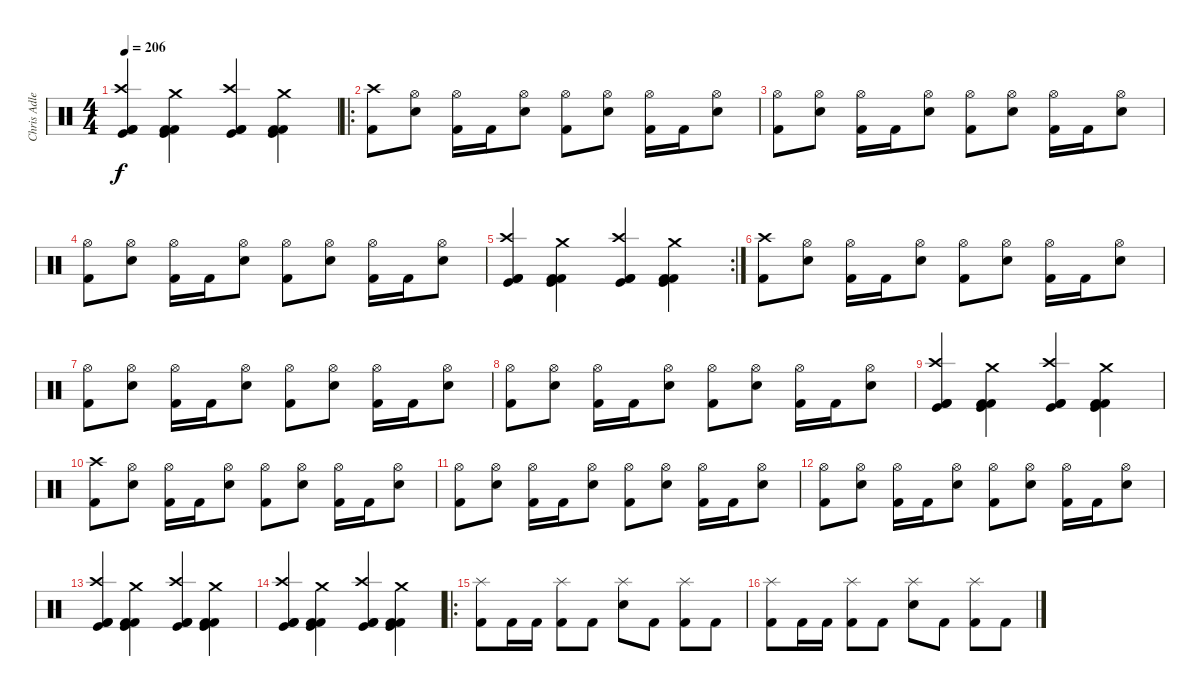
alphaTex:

\track ("Chris Adler" "Chris Adle") {instrument percussion}
\staff {score}
\articulation defaults
\ts (4 4)
\tempo 206
\clef neutral
\ks c
("Kick (hit) 2" "Crash high (hit)" "Kick (hit) 2" "Kick (hit)").4{dy f} ("Kick (hit) 2" "Crash medium (hit)" "Kick (hit) 2" "Kick (hit)").4 ("Kick (hit) 2" "Crash high (hit)" "Kick (hit) 2" "Kick (hit)").4 ("Kick (hit) 2" "Crash medium (hit)" "Kick (hit) 2" "Kick (hit)").4 |
\ro
("Crash high (hit)" "Kick (hit) 2").8 ("Hi-Hat (open)" "Electric Snare (hit)").8 ("Hi-Hat (open)" "Kick (hit) 2").16 "Kick (hit) 2".16 ("Hi-Hat (open)" "Electric Snare (hit)").8 ("Hi-Hat (open)" "Kick (hit) 2").8 ("Hi-Hat (open)" "Electric Snare (hit)").8 ("Hi-Hat (open)" "Kick (hit) 2").16 "Kick (hit) 2".16 ("Hi-Hat (open)" "Electric Snare (hit)").8 |
("Hi-Hat (open)" "Kick (hit) 2").8 ("Hi-Hat (open)" "Electric Snare (hit)").8 ("Hi-Hat (open)" "Kick (hit) 2").16 "Kick (hit) 2".16 ("Hi-Hat (open)" "Electric Snare (hit)").8 ("Hi-Hat (open)" "Kick (hit) 2").8 ("Hi-Hat (open)" "Electric Snare (hit)").8 ("Hi-Hat (open)" "Kick (hit) 2").16 "Kick (hit) 2".16 ("Hi-Hat (open)" "Electric Snare (hit)").8 |
("Hi-Hat (open)" "Kick (hit) 2").8 ("Hi-Hat (open)" "Electric Snare (hit)").8 ("Hi-Hat (open)" "Kick (hit) 2").16 "Kick (hit) 2".16 ("Hi-Hat (open)" "Electric Snare (hit)").8 ("Hi-Hat (open)" "Kick (hit) 2").8 ("Hi-Hat (open)" "Electric Snare (hit)").8 ("Hi-Hat (open)" "Kick (hit) 2").16 "Kick (hit) 2".16 ("Hi-Hat (open)" "Electric Snare (hit)").8 |
\rc 2
("Kick (hit) 2" "Crash high (hit)" "Kick (hit) 2" "Kick (hit)").4 ("Kick (hit) 2" "Crash medium (hit)" "Kick (hit) 2" "Kick (hit)").4 ("Kick (hit) 2" "Crash high (hit)" "Kick (hit) 2" "Kick (hit)").4 ("Kick (hit) 2" "Crash medium (hit)" "Kick (hit) 2" "Kick (hit)").4 |
("Crash high (hit)" "Kick (hit) 2").8 ("Hi-Hat (open)" "Electric Snare (hit)").8 ("Hi-Hat (open)" "Kick (hit) 2").16 "Kick (hit) 2".16 ("Hi-Hat (open)" "Electric Snare (hit)").8 ("Hi-Hat (open)" "Kick (hit) 2").8 ("Hi-Hat (open)" "Electric Snare (hit)").8 ("Hi-Hat (open)" "Kick (hit) 2").16 "Kick (hit) 2".16 ("Hi-Hat (open)" "Electric Snare (hit)").8 |
("Hi-Hat (open)" "Kick (hit) 2").8 ("Hi-Hat (open)" "Electric Snare (hit)").8 ("Hi-Hat (open)" "Kick (hit) 2").16 "Kick (hit) 2".16 ("Hi-Hat (open)" "Electric Snare (hit)").8 ("Hi-Hat (open)" "Kick (hit) 2").8 ("Hi-Hat (open)" "Electric Snare (hit)").8 ("Hi-Hat (open)" "Kick (hit) 2").16 "Kick (hit) 2".16 ("Hi-Hat (open)" "Electric Snare (hit)").8 |
("Hi-Hat (open)" "Kick (hit) 2").8 ("Hi-Hat (open)" "Electric Snare (hit)").8 ("Hi-Hat (open)" "Kick (hit) 2").16 "Kick (hit) 2".16 ("Hi-Hat (open)" "Electric Snare (hit)").8 ("Hi-Hat (open)" "Kick (hit) 2").8 ("Hi-Hat (open)" "Electric Snare (hit)").8 ("Hi-Hat (open)" "Kick (hit) 2").16 "Kick (hit) 2".16 ("Hi-Hat (open)" "Electric Snare (hit)").8 |
("Kick (hit) 2" "Crash high (hit)" "Kick (hit) 2" "Kick (hit)").4 ("Kick (hit) 2" "Crash medium (hit)" "Kick (hit) 2" "Kick (hit)").4 ("Kick (hit) 2" "Crash high (hit)" "Kick (hit) 2" "Kick (hit)").4 ("Kick (hit) 2" "Crash medium (hit)" "Kick (hit) 2" "Kick (hit)").4 |
("Crash high (hit)" "Kick (hit) 2").8 ("Hi-Hat (open)" "Electric Snare (hit)").8 ("Hi-Hat (open)" "Kick (hit) 2").16 "Kick (hit) 2".16 ("Hi-Hat (open)" "Electric Snare (hit)").8 ("Hi-Hat (open)" "Kick (hit) 2").8 ("Hi-Hat (open)" "Electric Snare (hit)").8 ("Hi-Hat (open)" "Kick (hit) 2").16 "Kick (hit) 2".16 ("Hi-Hat (open)" "Electric Snare (hit)").8 |
("Hi-Hat (open)" "Kick (hit) 2").8 ("Hi-Hat (open)" "Electric Snare (hit)").8 ("Hi-Hat (open)" "Kick (hit) 2").16 "Kick (hit) 2".16 ("Hi-Hat (open)" "Electric Snare (hit)").8 ("Hi-Hat (open)" "Kick (hit) 2").8 ("Hi-Hat (open)" "Electric Snare (hit)").8 ("Hi-Hat (open)" "Kick (hit) 2").16 "Kick (hit) 2".16 ("Hi-Hat (open)" "Electric Snare (hit)").8 |
("Hi-Hat (open)" "Kick (hit) 2").8 ("Hi-Hat (open)" "Electric Snare (hit)").8 ("Hi-Hat (open)" "Kick (hit) 2").16 "Kick (hit) 2".16 ("Hi-Hat (open)" "Electric Snare (hit)").8 ("Hi-Hat (open)" "Kick (hit) 2").8 ("Hi-Hat (open)" "Electric Snare (hit)").8 ("Hi-Hat (open)" "Kick (hit) 2").16 "Kick (hit) 2".16 ("Hi-Hat (open)" "Electric Snare (hit)").8 |
("Kick (hit) 2" "Crash high (hit)" "Kick (hit) 2" "Kick (hit)").4 ("Kick (hit) 2" "Crash medium (hit)" "Kick (hit) 2" "Kick (hit)").4 ("Kick (hit) 2" "Crash high (hit)" "Kick (hit) 2" "Kick (hit)").4 ("Kick (hit) 2" "Crash medium (hit)" "Kick (hit) 2" "Kick (hit)").4 |
("Kick (hit) 2" "Crash high (hit)" "Kick (hit) 2" "Kick (hit)").4 ("Kick (hit) 2" "Crash medium (hit)" "Kick (hit) 2" "Kick (hit)").4 ("Kick (hit) 2" "Crash high (hit)" "Kick (hit) 2" "Kick (hit)").4 ("Kick (hit) 2" "Crash medium (hit)" "Kick (hit) 2" "Kick (hit)").4 |
\ro
("Splash (hit)" "Kick (hit) 2").8 "Kick (hit) 2".16 "Kick (hit) 2".16 ("Splash (hit)" "Kick (hit) 2").8 "Kick (hit) 2".8 ("Splash (hit)" "Electric Snare (hit)").8 "Kick (hit) 2".8 ("Splash (hit)" "Kick (hit) 2").8 "Kick (hit) 2".8 |
("Splash (hit)" "Kick (hit) 2").8 "Kick (hit) 2".16 "Kick (hit) 2".16 ("Splash (hit)" "Kick (hit) 2").8 "Kick (hit) 2".8 ("Splash (hit)" "Electric Snare (hit)").8 "Kick (hit) 2".8 ("Splash (hit)" "Kick (hit) 2").8 "Kick (hit) 2".8
